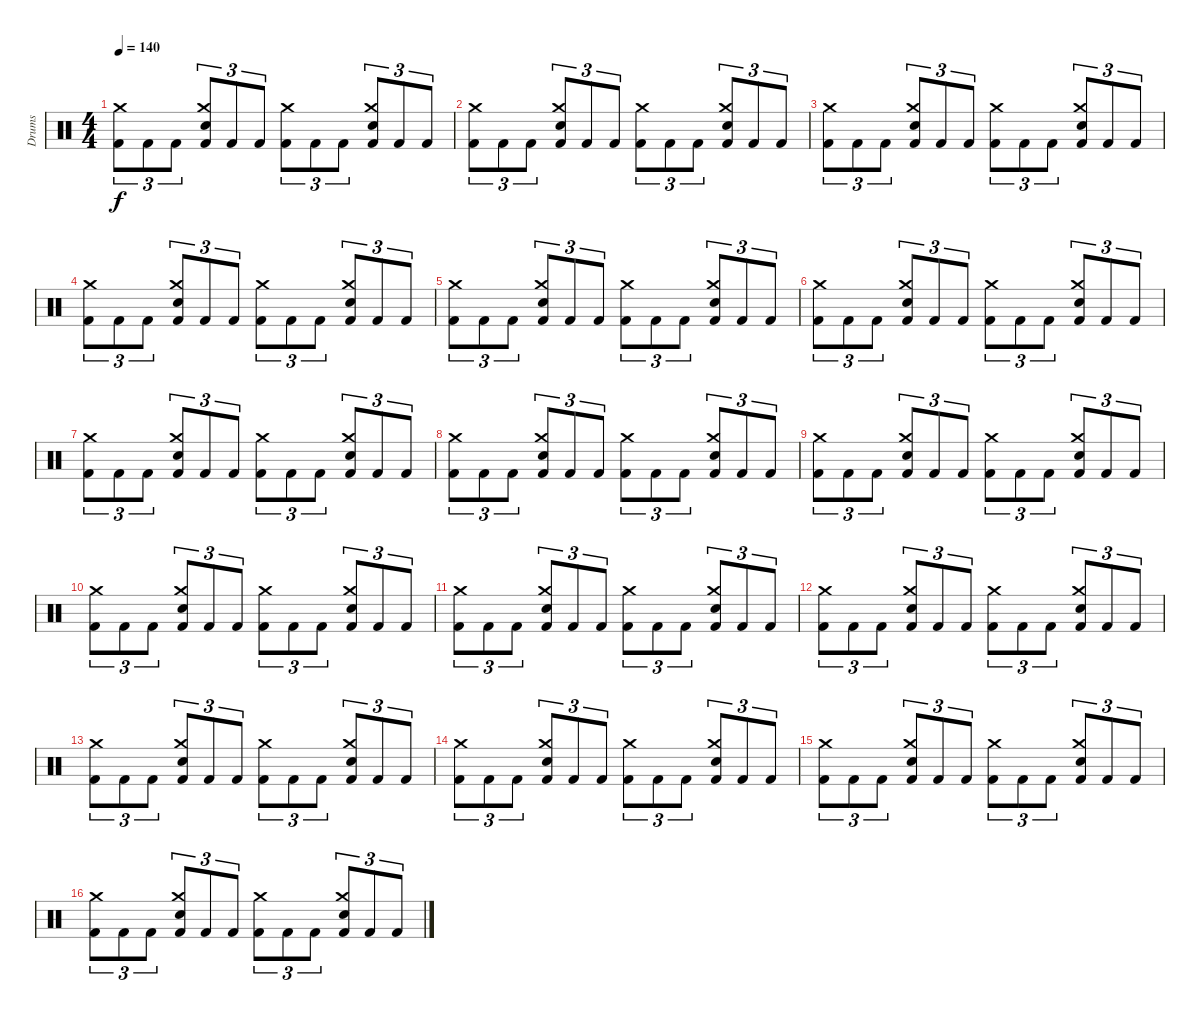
\track ("Drums" "Drums") {instrument percussion}
\staff {score}
\articulation defaults
\ts (4 4)
\tempo 140
\clef neutral
\ks c
("Kick (hit) 2" "Crash medium (hit)").8{tu (3 2) dy f} "Kick (hit) 2".8{tu (3 2)} "Kick (hit) 2".8{tu (3 2)} ("Electric Snare (hit)" "Kick (hit) 2" "Crash medium (hit)").8{tu (3 2)} "Kick (hit) 2".8{tu (3 2)} "Kick (hit) 2".8{tu (3 2)} ("Kick (hit) 2" "Crash medium (hit)").8{tu (3 2)} "Kick (hit) 2".8{tu (3 2)} "Kick (hit) 2".8{tu (3 2)} ("Electric Snare (hit)" "Kick (hit) 2" "Crash medium (hit)").8{tu (3 2)} "Kick (hit) 2".8{tu (3 2)} "Kick (hit) 2".8{tu (3 2)} |
("Kick (hit) 2" "Crash medium (hit)").8{tu (3 2)} "Kick (hit) 2".8{tu (3 2)} "Kick (hit) 2".8{tu (3 2)} ("Electric Snare (hit)" "Kick (hit) 2" "Crash medium (hit)").8{tu (3 2)} "Kick (hit) 2".8{tu (3 2)} "Kick (hit) 2".8{tu (3 2)} ("Kick (hit) 2" "Crash medium (hit)").8{tu (3 2)} "Kick (hit) 2".8{tu (3 2)} "Kick (hit) 2".8{tu (3 2)} ("Electric Snare (hit)" "Kick (hit) 2" "Crash medium (hit)").8{tu (3 2)} "Kick (hit) 2".8{tu (3 2)} "Kick (hit) 2".8{tu (3 2)} |
("Kick (hit) 2" "Crash medium (hit)").8{tu (3 2)} "Kick (hit) 2".8{tu (3 2)} "Kick (hit) 2".8{tu (3 2)} ("Electric Snare (hit)" "Kick (hit) 2" "Crash medium (hit)").8{tu (3 2)} "Kick (hit) 2".8{tu (3 2)} "Kick (hit) 2".8{tu (3 2)} ("Kick (hit) 2" "Crash medium (hit)").8{tu (3 2)} "Kick (hit) 2".8{tu (3 2)} "Kick (hit) 2".8{tu (3 2)} ("Electric Snare (hit)" "Kick (hit) 2" "Crash medium (hit)").8{tu (3 2)} "Kick (hit) 2".8{tu (3 2)} "Kick (hit) 2".8{tu (3 2)} |
("Kick (hit) 2" "Crash medium (hit)").8{tu (3 2)} "Kick (hit) 2".8{tu (3 2)} "Kick (hit) 2".8{tu (3 2)} ("Electric Snare (hit)" "Kick (hit) 2" "Crash medium (hit)").8{tu (3 2)} "Kick (hit) 2".8{tu (3 2)} "Kick (hit) 2".8{tu (3 2)} ("Kick (hit) 2" "Crash medium (hit)").8{tu (3 2)} "Kick (hit) 2".8{tu (3 2)} "Kick (hit) 2".8{tu (3 2)} ("Electric Snare (hit)" "Kick (hit) 2" "Crash medium (hit)").8{tu (3 2)} "Kick (hit) 2".8{tu (3 2)} "Kick (hit) 2".8{tu (3 2)} |
("Kick (hit) 2" "Crash medium (hit)").8{tu (3 2)} "Kick (hit) 2".8{tu (3 2)} "Kick (hit) 2".8{tu (3 2)} ("Electric Snare (hit)" "Kick (hit) 2" "Crash medium (hit)").8{tu (3 2)} "Kick (hit) 2".8{tu (3 2)} "Kick (hit) 2".8{tu (3 2)} ("Kick (hit) 2" "Crash medium (hit)").8{tu (3 2)} "Kick (hit) 2".8{tu (3 2)} "Kick (hit) 2".8{tu (3 2)} ("Electric Snare (hit)" "Kick (hit) 2" "Crash medium (hit)").8{tu (3 2)} "Kick (hit) 2".8{tu (3 2)} "Kick (hit) 2".8{tu (3 2)} |
("Kick (hit) 2" "Crash medium (hit)").8{tu (3 2)} "Kick (hit) 2".8{tu (3 2)} "Kick (hit) 2".8{tu (3 2)} ("Electric Snare (hit)" "Kick (hit) 2" "Crash medium (hit)").8{tu (3 2)} "Kick (hit) 2".8{tu (3 2)} "Kick (hit) 2".8{tu (3 2)} ("Kick (hit) 2" "Crash medium (hit)").8{tu (3 2)} "Kick (hit) 2".8{tu (3 2)} "Kick (hit) 2".8{tu (3 2)} ("Electric Snare (hit)" "Kick (hit) 2" "Crash medium (hit)").8{tu (3 2)} "Kick (hit) 2".8{tu (3 2)} "Kick (hit) 2".8{tu (3 2)} |
("Kick (hit) 2" "Crash medium (hit)").8{tu (3 2)} "Kick (hit) 2".8{tu (3 2)} "Kick (hit) 2".8{tu (3 2)} ("Electric Snare (hit)" "Kick (hit) 2" "Crash medium (hit)").8{tu (3 2)} "Kick (hit) 2".8{tu (3 2)} "Kick (hit) 2".8{tu (3 2)} ("Kick (hit) 2" "Crash medium (hit)").8{tu (3 2)} "Kick (hit) 2".8{tu (3 2)} "Kick (hit) 2".8{tu (3 2)} ("Electric Snare (hit)" "Kick (hit) 2" "Crash medium (hit)").8{tu (3 2)} "Kick (hit) 2".8{tu (3 2)} "Kick (hit) 2".8{tu (3 2)} |
("Kick (hit) 2" "Crash medium (hit)").8{tu (3 2)} "Kick (hit) 2".8{tu (3 2)} "Kick (hit) 2".8{tu (3 2)} ("Electric Snare (hit)" "Kick (hit) 2" "Crash medium (hit)").8{tu (3 2)} "Kick (hit) 2".8{tu (3 2)} "Kick (hit) 2".8{tu (3 2)} ("Kick (hit) 2" "Crash medium (hit)").8{tu (3 2)} "Kick (hit) 2".8{tu (3 2)} "Kick (hit) 2".8{tu (3 2)} ("Electric Snare (hit)" "Kick (hit) 2" "Crash medium (hit)").8{tu (3 2)} "Kick (hit) 2".8{tu (3 2)} "Kick (hit) 2".8{tu (3 2)} |
("Kick (hit) 2" "Crash medium (hit)").8{tu (3 2)} "Kick (hit) 2".8{tu (3 2)} "Kick (hit) 2".8{tu (3 2)} ("Electric Snare (hit)" "Kick (hit) 2" "Crash medium (hit)").8{tu (3 2)} "Kick (hit) 2".8{tu (3 2)} "Kick (hit) 2".8{tu (3 2)} ("Kick (hit) 2" "Crash medium (hit)").8{tu (3 2)} "Kick (hit) 2".8{tu (3 2)} "Kick (hit) 2".8{tu (3 2)} ("Electric Snare (hit)" "Kick (hit) 2" "Crash medium (hit)").8{tu (3 2)} "Kick (hit) 2".8{tu (3 2)} "Kick (hit) 2".8{tu (3 2)} |
("Kick (hit) 2" "Crash medium (hit)").8{tu (3 2)} "Kick (hit) 2".8{tu (3 2)} "Kick (hit) 2".8{tu (3 2)} ("Electric Snare (hit)" "Kick (hit) 2" "Crash medium (hit)").8{tu (3 2)} "Kick (hit) 2".8{tu (3 2)} "Kick (hit) 2".8{tu (3 2)} ("Kick (hit) 2" "Crash medium (hit)").8{tu (3 2)} "Kick (hit) 2".8{tu (3 2)} "Kick (hit) 2".8{tu (3 2)} ("Electric Snare (hit)" "Kick (hit) 2" "Crash medium (hit)").8{tu (3 2)} "Kick (hit) 2".8{tu (3 2)} "Kick (hit) 2".8{tu (3 2)} |
("Kick (hit) 2" "Crash medium (hit)").8{tu (3 2)} "Kick (hit) 2".8{tu (3 2)} "Kick (hit) 2".8{tu (3 2)} ("Electric Snare (hit)" "Kick (hit) 2" "Crash medium (hit)").8{tu (3 2)} "Kick (hit) 2".8{tu (3 2)} "Kick (hit) 2".8{tu (3 2)} ("Kick (hit) 2" "Crash medium (hit)").8{tu (3 2)} "Kick (hit) 2".8{tu (3 2)} "Kick (hit) 2".8{tu (3 2)} ("Electric Snare (hit)" "Kick (hit) 2" "Crash medium (hit)").8{tu (3 2)} "Kick (hit) 2".8{tu (3 2)} "Kick (hit) 2".8{tu (3 2)} |
("Kick (hit) 2" "Crash medium (hit)").8{tu (3 2)} "Kick (hit) 2".8{tu (3 2)} "Kick (hit) 2".8{tu (3 2)} ("Electric Snare (hit)" "Kick (hit) 2" "Crash medium (hit)").8{tu (3 2)} "Kick (hit) 2".8{tu (3 2)} "Kick (hit) 2".8{tu (3 2)} ("Kick (hit) 2" "Crash medium (hit)").8{tu (3 2)} "Kick (hit) 2".8{tu (3 2)} "Kick (hit) 2".8{tu (3 2)} ("Electric Snare (hit)" "Kick (hit) 2" "Crash medium (hit)").8{tu (3 2)} "Kick (hit) 2".8{tu (3 2)} "Kick (hit) 2".8{tu (3 2)} |
("Kick (hit) 2" "Crash medium (hit)").8{tu (3 2)} "Kick (hit) 2".8{tu (3 2)} "Kick (hit) 2".8{tu (3 2)} ("Electric Snare (hit)" "Kick (hit) 2" "Crash medium (hit)").8{tu (3 2)} "Kick (hit) 2".8{tu (3 2)} "Kick (hit) 2".8{tu (3 2)} ("Kick (hit) 2" "Crash medium (hit)").8{tu (3 2)} "Kick (hit) 2".8{tu (3 2)} "Kick (hit) 2".8{tu (3 2)} ("Electric Snare (hit)" "Kick (hit) 2" "Crash medium (hit)").8{tu (3 2)} "Kick (hit) 2".8{tu (3 2)} "Kick (hit) 2".8{tu (3 2)} |
("Kick (hit) 2" "Crash medium (hit)").8{tu (3 2)} "Kick (hit) 2".8{tu (3 2)} "Kick (hit) 2".8{tu (3 2)} ("Electric Snare (hit)" "Kick (hit) 2" "Crash medium (hit)").8{tu (3 2)} "Kick (hit) 2".8{tu (3 2)} "Kick (hit) 2".8{tu (3 2)} ("Kick (hit) 2" "Crash medium (hit)").8{tu (3 2)} "Kick (hit) 2".8{tu (3 2)} "Kick (hit) 2".8{tu (3 2)} ("Electric Snare (hit)" "Kick (hit) 2" "Crash medium (hit)").8{tu (3 2)} "Kick (hit) 2".8{tu (3 2)} "Kick (hit) 2".8{tu (3 2)} |
("Kick (hit) 2" "Crash medium (hit)").8{tu (3 2)} "Kick (hit) 2".8{tu (3 2)} "Kick (hit) 2".8{tu (3 2)} ("Electric Snare (hit)" "Kick (hit) 2" "Crash medium (hit)").8{tu (3 2)} "Kick (hit) 2".8{tu (3 2)} "Kick (hit) 2".8{tu (3 2)} ("Kick (hit) 2" "Crash medium (hit)").8{tu (3 2)} "Kick (hit) 2".8{tu (3 2)} "Kick (hit) 2".8{tu (3 2)} ("Electric Snare (hit)" "Kick (hit) 2" "Crash medium (hit)").8{tu (3 2)} "Kick (hit) 2".8{tu (3 2)} "Kick (hit) 2".8{tu (3 2)} |
("Kick (hit) 2" "Crash medium (hit)").8{tu (3 2)} "Kick (hit) 2".8{tu (3 2)} "Kick (hit) 2".8{tu (3 2)} ("Electric Snare (hit)" "Kick (hit) 2" "Crash medium (hit)").8{tu (3 2)} "Kick (hit) 2".8{tu (3 2)} "Kick (hit) 2".8{tu (3 2)} ("Kick (hit) 2" "Crash medium (hit)").8{tu (3 2)} "Kick (hit) 2".8{tu (3 2)} "Kick (hit) 2".8{tu (3 2)} ("Electric Snare (hit)" "Kick (hit) 2" "Crash medium (hit)").8{tu (3 2)} "Kick (hit) 2".8{tu (3 2)} "Kick (hit) 2".8{tu (3 2)}
